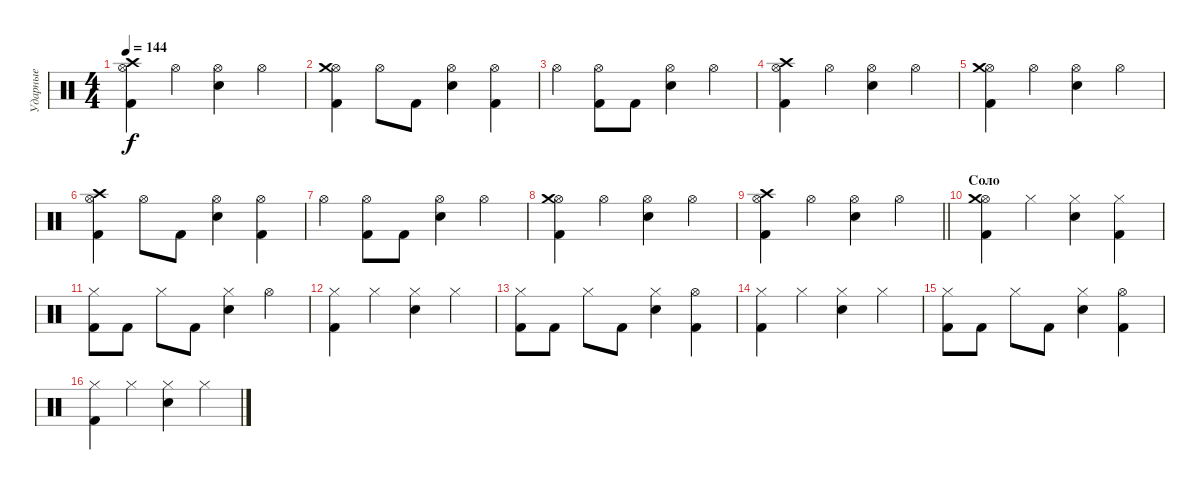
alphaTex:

\track ("Ударные" "Ударные") {instrument percussion}
\staff {score}
\articulation defaults
\ts (4 4)
\tempo 144
\clef neutral
\ks c
("Kick (hit) 2" "Hi-Hat (open)" "Crash high (hit)").4{dy f} "Hi-Hat (open)".4 ("Snare (hit) 2" "Hi-Hat (open)").4 "Hi-Hat (open)".4 |
("Kick (hit) 2" "Hi-Hat (open)" "Crash medium (hit)").4 "Hi-Hat (open)".8 "Kick (hit) 2".8 ("Snare (hit) 2" "Hi-Hat (open)").4 ("Kick (hit) 2" "Hi-Hat (open)").4 |
"Hi-Hat (open)".4 ("Kick (hit) 2" "Hi-Hat (open)").8 "Kick (hit) 2".8 ("Snare (hit) 2" "Hi-Hat (open)").4 "Hi-Hat (open)".4 |
("Kick (hit) 2" "Hi-Hat (open)" "Crash high (hit)").4 "Hi-Hat (open)".4 ("Snare (hit) 2" "Hi-Hat (open)").4 "Hi-Hat (open)".4 |
("Kick (hit) 2" "Hi-Hat (open)" "Crash medium (hit)").4 "Hi-Hat (open)".4 ("Snare (hit) 2" "Hi-Hat (open)").4 "Hi-Hat (open)".4 |
("Kick (hit) 2" "Hi-Hat (open)" "Crash high (hit)").4 "Hi-Hat (open)".8 "Kick (hit) 2".8 ("Snare (hit) 2" "Hi-Hat (open)").4 ("Kick (hit) 2" "Hi-Hat (open)").4 |
"Hi-Hat (open)".4 ("Kick (hit) 2" "Hi-Hat (open)").8 "Kick (hit) 2".8 ("Snare (hit) 2" "Hi-Hat (open)").4 "Hi-Hat (open)".4 |
("Kick (hit) 2" "Hi-Hat (open)" "Crash medium (hit)").4 "Hi-Hat (open)".4 ("Snare (hit) 2" "Hi-Hat (open)").4 "Hi-Hat (open)".4 |
\barLineRight lightlight
("Kick (hit) 2" "Hi-Hat (open)" "Crash high (hit)").4 "Hi-Hat (open)".4 ("Snare (hit) 2" "Hi-Hat (open)").4 "Hi-Hat (open)".4 |
\section ("" "Соло")
("Kick (hit) 2" "Hi-Hat (open)" "Crash medium (hit)").4 "Hi-Hat (closed)".4 ("Snare (hit) 2" "Hi-Hat (closed)").4 ("Kick (hit) 2" "Hi-Hat (closed)").4 |
("Kick (hit) 2" "Hi-Hat (closed)").8 "Kick (hit) 2".8 "Hi-Hat (closed)".8 "Kick (hit) 2".8 ("Snare (hit) 2" "Hi-Hat (closed)").4 "Hi-Hat (open)".4 |
("Kick (hit) 2" "Hi-Hat (closed)").4 "Hi-Hat (closed)".4 ("Snare (hit) 2" "Hi-Hat (closed)").4 "Hi-Hat (closed)".4 |
("Kick (hit) 2" "Hi-Hat (closed)").8 "Kick (hit) 2".8 "Hi-Hat (closed)".8 "Kick (hit) 2".8 ("Snare (hit) 2" "Hi-Hat (closed)").4 ("Kick (hit) 2" "Hi-Hat (open)").4 |
("Kick (hit) 2" "Hi-Hat (closed)").4 "Hi-Hat (closed)".4 ("Snare (hit) 2" "Hi-Hat (closed)").4 "Hi-Hat (closed)".4 |
("Kick (hit) 2" "Hi-Hat (closed)").8 "Kick (hit) 2".8 "Hi-Hat (closed)".8 "Kick (hit) 2".8 ("Snare (hit) 2" "Hi-Hat (closed)").4 ("Kick (hit) 2" "Hi-Hat (open)").4 |
("Kick (hit) 2" "Hi-Hat (closed)").4 "Hi-Hat (closed)".4 ("Snare (hit) 2" "Hi-Hat (closed)").4 "Hi-Hat (closed)".4
